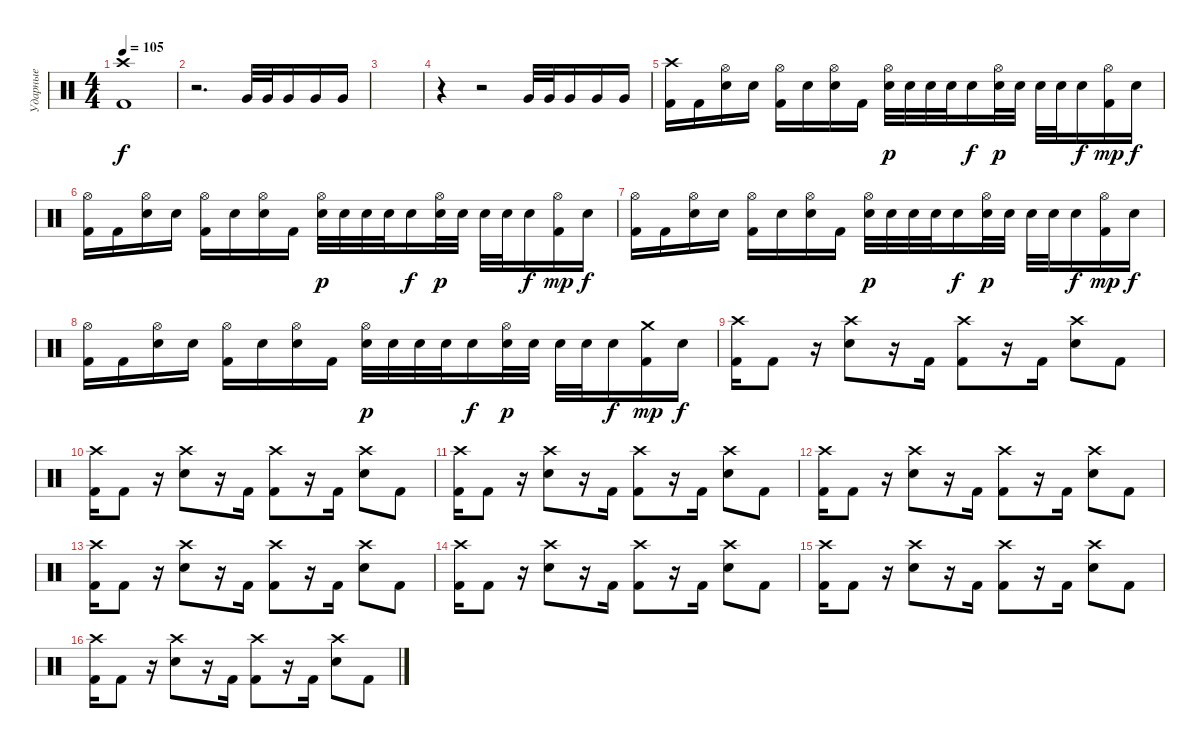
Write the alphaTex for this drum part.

\track ("Ударные" "Ударные") {instrument percussion}
\staff {score}
\articulation defaults
\ts (4 4)
\tempo 105
\clef neutral
\ks c
("Crash high (hit)" "Kick (hit) 2").1{dy f} |
r.2{d} "Very Low Tom (hit)".32 "Very Low Tom (hit)".32 "Very Low Tom (hit)".16 "Very Low Tom (hit)".16 "Very Low Tom (hit)".16 |
|
r.4 r.2 "Very Low Tom (hit)".32 "Very Low Tom (hit)".32 "Very Low Tom (hit)".16 "Very Low Tom (hit)".16 "Very Low Tom (hit)".16 |
("Crash high (hit)" "Kick (hit) 2").16 "Kick (hit) 2".16 ("Hi-Hat (open)" "Electric Snare (hit)").16 "Electric Snare (hit)".16 ("Hi-Hat (open)" "Kick (hit) 2").16 "Electric Snare (hit)".16 ("Hi-Hat (open)" "Electric Snare (hit)").16 "Kick (hit) 2".16 ("Hi-Hat (open)" "Electric Snare (hit)").32{dy p} "Electric Snare (hit)".32 "Electric Snare (hit)".32 "Electric Snare (hit)".32 "Electric Snare (hit)".16{dy f} ("Hi-Hat (open)" "Electric Snare (hit)").32{dy p} "Electric Snare (hit)".32 "Electric Snare (hit)".32 "Electric Snare (hit)".32 "Electric Snare (hit)".16{dy f} ("Hi-Hat (open)" "Kick (hit) 2").16{dy mp} "Electric Snare (hit)".16{dy f} |
("Hi-Hat (open)" "Kick (hit) 2").16 "Kick (hit) 2".16 ("Hi-Hat (open)" "Electric Snare (hit)").16 "Electric Snare (hit)".16 ("Hi-Hat (open)" "Kick (hit) 2").16 "Electric Snare (hit)".16 ("Hi-Hat (open)" "Electric Snare (hit)").16 "Kick (hit) 2".16 ("Hi-Hat (open)" "Electric Snare (hit)").32{dy p} "Electric Snare (hit)".32 "Electric Snare (hit)".32 "Electric Snare (hit)".32 "Electric Snare (hit)".16{dy f} ("Hi-Hat (open)" "Electric Snare (hit)").32{dy p} "Electric Snare (hit)".32 "Electric Snare (hit)".32 "Electric Snare (hit)".32 "Electric Snare (hit)".16{dy f} ("Hi-Hat (open)" "Kick (hit) 2").16{dy mp} "Electric Snare (hit)".16{dy f} |
("Hi-Hat (open)" "Kick (hit) 2").16 "Kick (hit) 2".16 ("Hi-Hat (open)" "Electric Snare (hit)").16 "Electric Snare (hit)".16 ("Hi-Hat (open)" "Kick (hit) 2").16 "Electric Snare (hit)".16 ("Hi-Hat (open)" "Electric Snare (hit)").16 "Kick (hit) 2".16 ("Hi-Hat (open)" "Electric Snare (hit)").32{dy p} "Electric Snare (hit)".32 "Electric Snare (hit)".32 "Electric Snare (hit)".32 "Electric Snare (hit)".16{dy f} ("Hi-Hat (open)" "Electric Snare (hit)").32{dy p} "Electric Snare (hit)".32 "Electric Snare (hit)".32 "Electric Snare (hit)".32 "Electric Snare (hit)".16{dy f} ("Hi-Hat (open)" "Kick (hit) 2").16{dy mp} "Electric Snare (hit)".16{dy f} |
("Hi-Hat (open)" "Kick (hit) 2").16 "Kick (hit) 2".16 ("Hi-Hat (open)" "Electric Snare (hit)").16 "Electric Snare (hit)".16 ("Hi-Hat (open)" "Kick (hit) 2").16 "Electric Snare (hit)".16 ("Hi-Hat (open)" "Electric Snare (hit)").16 "Kick (hit) 2".16 ("Hi-Hat (open)" "Electric Snare (hit)").32{dy p} "Electric Snare (hit)".32 "Electric Snare (hit)".32 "Electric Snare (hit)".32 "Electric Snare (hit)".16{dy f} ("Hi-Hat (open)" "Electric Snare (hit)").32{dy p} "Electric Snare (hit)".32 "Electric Snare (hit)".32 "Electric Snare (hit)".32 "Electric Snare (hit)".16{dy f} ("Crash medium (hit)" "Kick (hit) 2").16{dy mp} "Electric Snare (hit)".16{dy f} |
("Crash high (hit)" "Kick (hit) 2").16 "Kick (hit) 2".8 r.16 ("Crash high (hit)" "Electric Snare (hit)").8 r.16 "Kick (hit) 2".16 ("Crash high (hit)" "Kick (hit) 2").8 r.16 "Kick (hit) 2".16 ("Crash high (hit)" "Electric Snare (hit)").8 "Kick (hit) 2".8 |
("Crash high (hit)" "Kick (hit) 2").16 "Kick (hit) 2".8 r.16 ("Crash high (hit)" "Electric Snare (hit)").8 r.16 "Kick (hit) 2".16 ("Crash high (hit)" "Kick (hit) 2").8 r.16 "Kick (hit) 2".16 ("Crash high (hit)" "Electric Snare (hit)").8 "Kick (hit) 2".8 |
("Crash high (hit)" "Kick (hit) 2").16 "Kick (hit) 2".8 r.16 ("Crash high (hit)" "Electric Snare (hit)").8 r.16 "Kick (hit) 2".16 ("Crash high (hit)" "Kick (hit) 2").8 r.16 "Kick (hit) 2".16 ("Crash high (hit)" "Electric Snare (hit)").8 "Kick (hit) 2".8 |
("Crash high (hit)" "Kick (hit) 2").16 "Kick (hit) 2".8 r.16 ("Crash high (hit)" "Electric Snare (hit)").8 r.16 "Kick (hit) 2".16 ("Crash high (hit)" "Kick (hit) 2").8 r.16 "Kick (hit) 2".16 ("Crash high (hit)" "Electric Snare (hit)").8 "Kick (hit) 2".8 |
("Crash high (hit)" "Kick (hit) 2").16 "Kick (hit) 2".8 r.16 ("Crash high (hit)" "Electric Snare (hit)").8 r.16 "Kick (hit) 2".16 ("Crash high (hit)" "Kick (hit) 2").8 r.16 "Kick (hit) 2".16 ("Crash high (hit)" "Electric Snare (hit)").8 "Kick (hit) 2".8 |
("Crash high (hit)" "Kick (hit) 2").16 "Kick (hit) 2".8 r.16 ("Crash high (hit)" "Electric Snare (hit)").8 r.16 "Kick (hit) 2".16 ("Crash high (hit)" "Kick (hit) 2").8 r.16 "Kick (hit) 2".16 ("Crash high (hit)" "Electric Snare (hit)").8 "Kick (hit) 2".8 |
("Crash high (hit)" "Kick (hit) 2").16 "Kick (hit) 2".8 r.16 ("Crash high (hit)" "Electric Snare (hit)").8 r.16 "Kick (hit) 2".16 ("Crash high (hit)" "Kick (hit) 2").8 r.16 "Kick (hit) 2".16 ("Crash high (hit)" "Electric Snare (hit)").8 "Kick (hit) 2".8 |
("Crash high (hit)" "Kick (hit) 2").16 "Kick (hit) 2".8 r.16 ("Crash high (hit)" "Electric Snare (hit)").8 r.16 "Kick (hit) 2".16 ("Crash high (hit)" "Kick (hit) 2").8 r.16 "Kick (hit) 2".16 ("Crash high (hit)" "Electric Snare (hit)").8 "Kick (hit) 2".8
